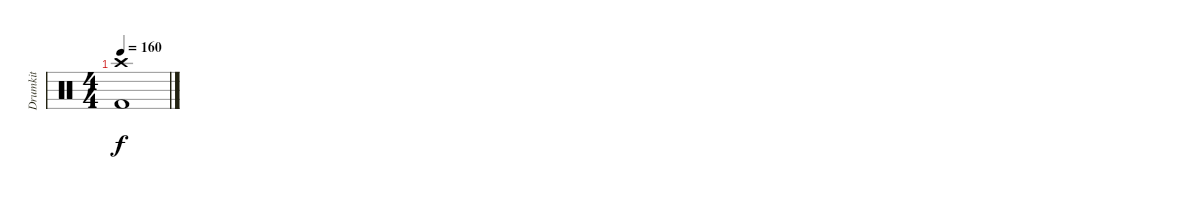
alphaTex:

\track ("Drumkit" "Drumkit") {instrument percussion}
\staff {score}
\articulation defaults
\ts (4 4)
\tempo 160
\clef neutral
\ks c
("Crash high (hit)" "Kick (hit) 2").1{dy f}
